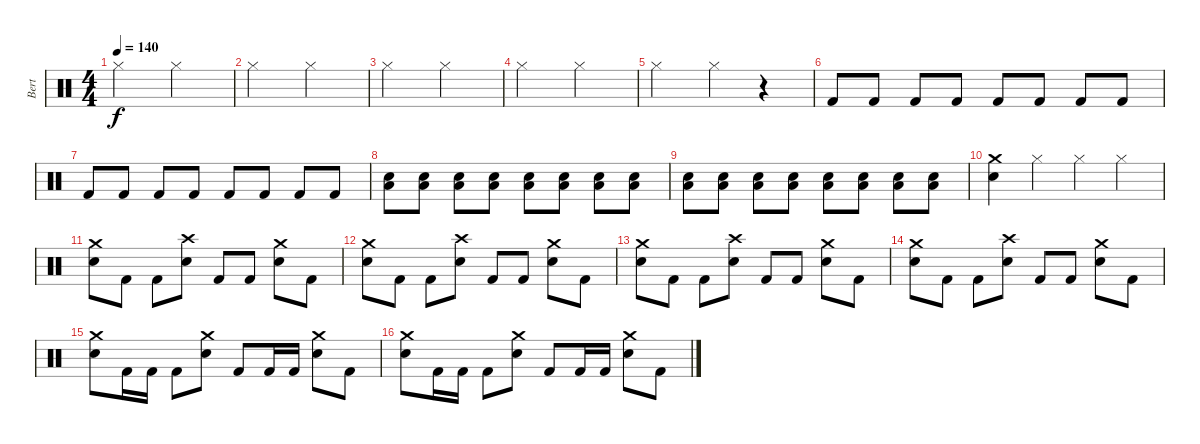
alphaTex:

\track ("Bert" "Bert") {instrument percussion}
\staff {score}
\articulation defaults
\ts (4 4)
\tempo 140
\clef neutral
\ks c "Hi-Hat (closed)".2{dy f} "Hi-Hat (closed)".2
|
"Hi-Hat (closed)".2 "Hi-Hat (closed)".2 |
"Hi-Hat (closed)".2 "Hi-Hat (closed)".2 |
"Hi-Hat (closed)".2 "Hi-Hat (closed)".2 |
"Hi-Hat (closed)".2 "Hi-Hat (closed)".4 r.4{volume 7} |
"Kick (hit) 2".8{volume 13} "Kick (hit) 2".8 "Kick (hit) 2".8 "Kick (hit) 2".8 "Kick (hit) 2".8 "Kick (hit) 2".8 "Kick (hit) 2".8 "Kick (hit) 2".8 |
"Kick (hit) 2".8 "Kick (hit) 2".8 "Kick (hit) 2".8 "Kick (hit) 2".8 "Kick (hit) 2".8 "Kick (hit) 2".8 "Kick (hit) 2".8 "Kick (hit) 2".8 |
("Snare (hit) 2" "Low Floor Tom (hit)").8 ("Snare (hit) 2" "Low Floor Tom (hit)").8 ("Snare (hit) 2" "Low Floor Tom (hit)").8 ("Snare (hit) 2" "Low Floor Tom (hit)").8 ("Snare (hit) 2" "Low Floor Tom (hit)").8 ("Snare (hit) 2" "Low Floor Tom (hit)").8 ("Snare (hit) 2" "Low Floor Tom (hit)").8 ("Snare (hit) 2" "Low Floor Tom (hit)").8 |
("Snare (hit) 2" "Low Floor Tom (hit)").8 ("Snare (hit) 2" "Low Floor Tom (hit)").8 ("Snare (hit) 2" "Low Floor Tom (hit)").8 ("Snare (hit) 2" "Low Floor Tom (hit)").8 ("Snare (hit) 2" "Low Floor Tom (hit)").8 ("Snare (hit) 2" "Low Floor Tom (hit)").8 ("Snare (hit) 2" "Low Floor Tom (hit)").8 ("Snare (hit) 2" "Low Floor Tom (hit)").8 |
("Crash medium (hit)" "Snare (hit) 2").4 "Hi-Hat (closed)".4 "Hi-Hat (closed)".4 "Hi-Hat (closed)".4 |
("Crash medium (hit)" "Snare (hit) 2").8 "Kick (hit) 2".8 "Kick (hit) 2".8 ("Crash high (hit)" "Snare (hit) 2").8 "Kick (hit) 2".8 "Kick (hit) 2".8 ("Crash medium (hit)" "Snare (hit) 2").8 "Kick (hit) 2".8 |
("Crash medium (hit)" "Snare (hit) 2").8 "Kick (hit) 2".8 "Kick (hit) 2".8 ("Crash high (hit)" "Snare (hit) 2").8 "Kick (hit) 2".8 "Kick (hit) 2".8 ("Crash medium (hit)" "Snare (hit) 2").8 "Kick (hit) 2".8 |
("Crash medium (hit)" "Snare (hit) 2").8 "Kick (hit) 2".8 "Kick (hit) 2".8 ("Crash high (hit)" "Snare (hit) 2").8 "Kick (hit) 2".8 "Kick (hit) 2".8 ("Crash medium (hit)" "Snare (hit) 2").8 "Kick (hit) 2".8 |
("Crash medium (hit)" "Snare (hit) 2").8 "Kick (hit) 2".8 "Kick (hit) 2".8 ("Crash high (hit)" "Snare (hit) 2").8 "Kick (hit) 2".8 "Kick (hit) 2".8 ("Crash medium (hit)" "Snare (hit) 2").8 "Kick (hit) 2".8 |
("Crash medium (hit)" "Snare (hit) 2").8 "Kick (hit) 2".16 "Kick (hit) 2".16 "Kick (hit) 2".8 ("Crash medium (hit)" "Snare (hit) 2").8 "Kick (hit) 2".8 "Kick (hit) 2".16 "Kick (hit) 2".16 ("Crash medium (hit)" "Snare (hit) 2").8 "Kick (hit) 2".8 |
("Crash medium (hit)" "Snare (hit) 2").8 "Kick (hit) 2".16 "Kick (hit) 2".16 "Kick (hit) 2".8 ("Crash medium (hit)" "Snare (hit) 2").8 "Kick (hit) 2".8 "Kick (hit) 2".16 "Kick (hit) 2".16 ("Crash medium (hit)" "Snare (hit) 2").8 "Kick (hit) 2".8
